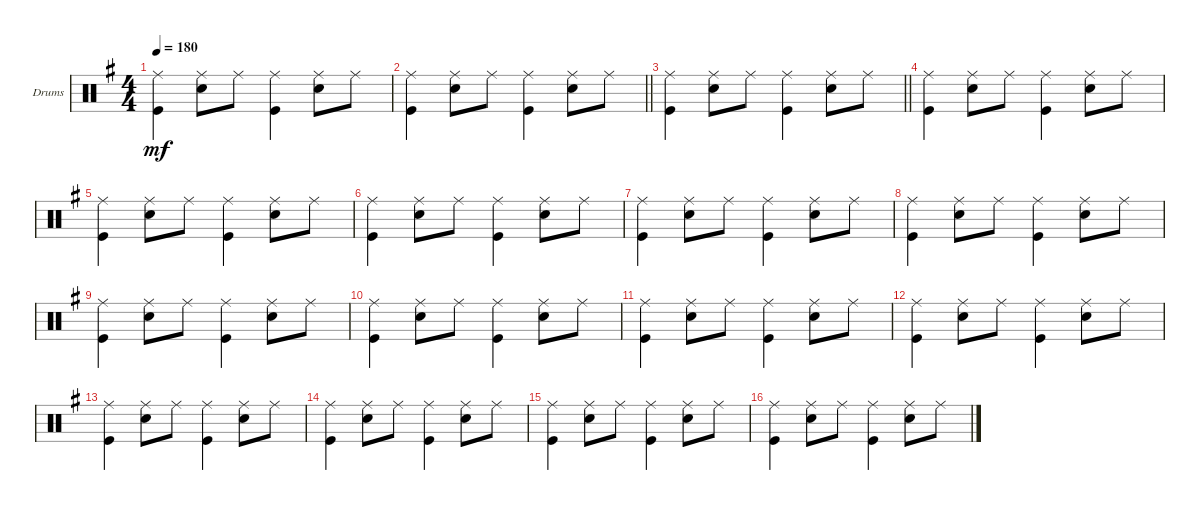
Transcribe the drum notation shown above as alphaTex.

\defaultSystemsLayout 4
\bracketExtendMode groupsimilarinstruments
\firstSystemTrackNameOrientation horizontal
\otherSystemsTrackNameOrientation horizontal
\track ("Drums Ringo" "Drums") {instrument percussion}
\staff {score}
\articulation defaults
\ts (4 4)
\tempo 180
\clef neutral
\scale
0.333333
\ks g
("Ride (middle)" "Kick (hit)").4{dy mf} ("Snare (hit) 2" "Ride (middle)").8 "Ride (middle)".8 ("Ride (middle)" "Kick (hit)").4 ("Snare (hit) 2" "Ride (middle)").8 "Ride (middle)".8 |
\scale
0.333333
\barLineRight lightlight
("Ride (middle)" "Kick (hit)").4 ("Snare (hit) 2" "Ride (middle)").8 "Ride (middle)".8 ("Ride (middle)" "Kick (hit)").4 ("Snare (hit) 2" "Ride (middle)").8 "Ride (middle)".8 |
\scale
0.333333
\barLineRight lightlight
("Ride (middle)" "Kick (hit)").4 ("Snare (hit) 2" "Ride (middle)").8 "Ride (middle)".8 ("Ride (middle)" "Kick (hit)").4 ("Snare (hit) 2" "Ride (middle)").8 "Ride (middle)".8 |
\scale
0.333333 ("Ride (middle)" "Kick (hit)").4 ("Snare (hit) 2" "Ride (middle)").8 "Ride (middle)".8 ("Ride (middle)" "Kick (hit)").4 ("Snare (hit) 2" "Ride (middle)").8 "Ride (middle)".8 |
\scale
0.333333 ("Ride (middle)" "Kick (hit)").4 ("Snare (hit) 2" "Ride (middle)").8 "Ride (middle)".8 ("Ride (middle)" "Kick (hit)").4 ("Snare (hit) 2" "Ride (middle)").8 "Ride (middle)".8 |
\scale
0.333333 ("Ride (middle)" "Kick (hit)").4 ("Snare (hit) 2" "Ride (middle)").8 "Ride (middle)".8 ("Ride (middle)" "Kick (hit)").4 ("Snare (hit) 2" "Ride (middle)").8 "Ride (middle)".8 |
\scale
0.333333 ("Ride (middle)" "Kick (hit)").4 ("Snare (hit) 2" "Ride (middle)").8 "Ride (middle)".8 ("Ride (middle)" "Kick (hit)").4 ("Snare (hit) 2" "Ride (middle)").8 "Ride (middle)".8 |
\scale
0.333333 ("Ride (middle)" "Kick (hit)").4 ("Snare (hit) 2" "Ride (middle)").8 "Ride (middle)".8 ("Ride (middle)" "Kick (hit)").4 ("Snare (hit) 2" "Ride (middle)").8 "Ride (middle)".8 |
\scale
0.333333 ("Ride (middle)" "Kick (hit)").4 ("Snare (hit) 2" "Ride (middle)").8 "Ride (middle)".8 ("Ride (middle)" "Kick (hit)").4 ("Snare (hit) 2" "Ride (middle)").8 "Ride (middle)".8 |
\scale
0.333333 ("Ride (middle)" "Kick (hit)").4 ("Snare (hit) 2" "Ride (middle)").8 "Ride (middle)".8 ("Ride (middle)" "Kick (hit)").4 ("Snare (hit) 2" "Ride (middle)").8 "Ride (middle)".8 |
\scale
0.333333 ("Ride (middle)" "Kick (hit)").4 ("Snare (hit) 2" "Ride (middle)").8 "Ride (middle)".8 ("Ride (middle)" "Kick (hit)").4 ("Snare (hit) 2" "Ride (middle)").8 "Ride (middle)".8 |
\scale
0.333333 ("Ride (middle)" "Kick (hit)").4 ("Snare (hit) 2" "Ride (middle)").8 "Ride (middle)".8 ("Ride (middle)" "Kick (hit)").4 ("Snare (hit) 2" "Ride (middle)").8 "Ride (middle)".8 |
\scale
0.333333 ("Ride (middle)" "Kick (hit)").4 ("Snare (hit) 2" "Ride (middle)").8 "Ride (middle)".8 ("Ride (middle)" "Kick (hit)").4 ("Snare (hit) 2" "Ride (middle)").8 "Ride (middle)".8 |
\scale
0.333333 ("Ride (middle)" "Kick (hit)").4 ("Snare (hit) 2" "Ride (middle)").8 "Ride (middle)".8 ("Ride (middle)" "Kick (hit)").4 ("Snare (hit) 2" "Ride (middle)").8 "Ride (middle)".8 |
\scale
0.333333 ("Ride (middle)" "Kick (hit)").4 ("Snare (hit) 2" "Ride (middle)").8 "Ride (middle)".8 ("Ride (middle)" "Kick (hit)").4 ("Snare (hit) 2" "Ride (middle)").8 "Ride (middle)".8 |
\scale
0.333333 ("Ride (middle)" "Kick (hit)").4 ("Snare (hit) 2" "Ride (middle)").8 "Ride (middle)".8 ("Ride (middle)" "Kick (hit)").4 ("Snare (hit) 2" "Ride (middle)").8 "Ride (middle)".8
